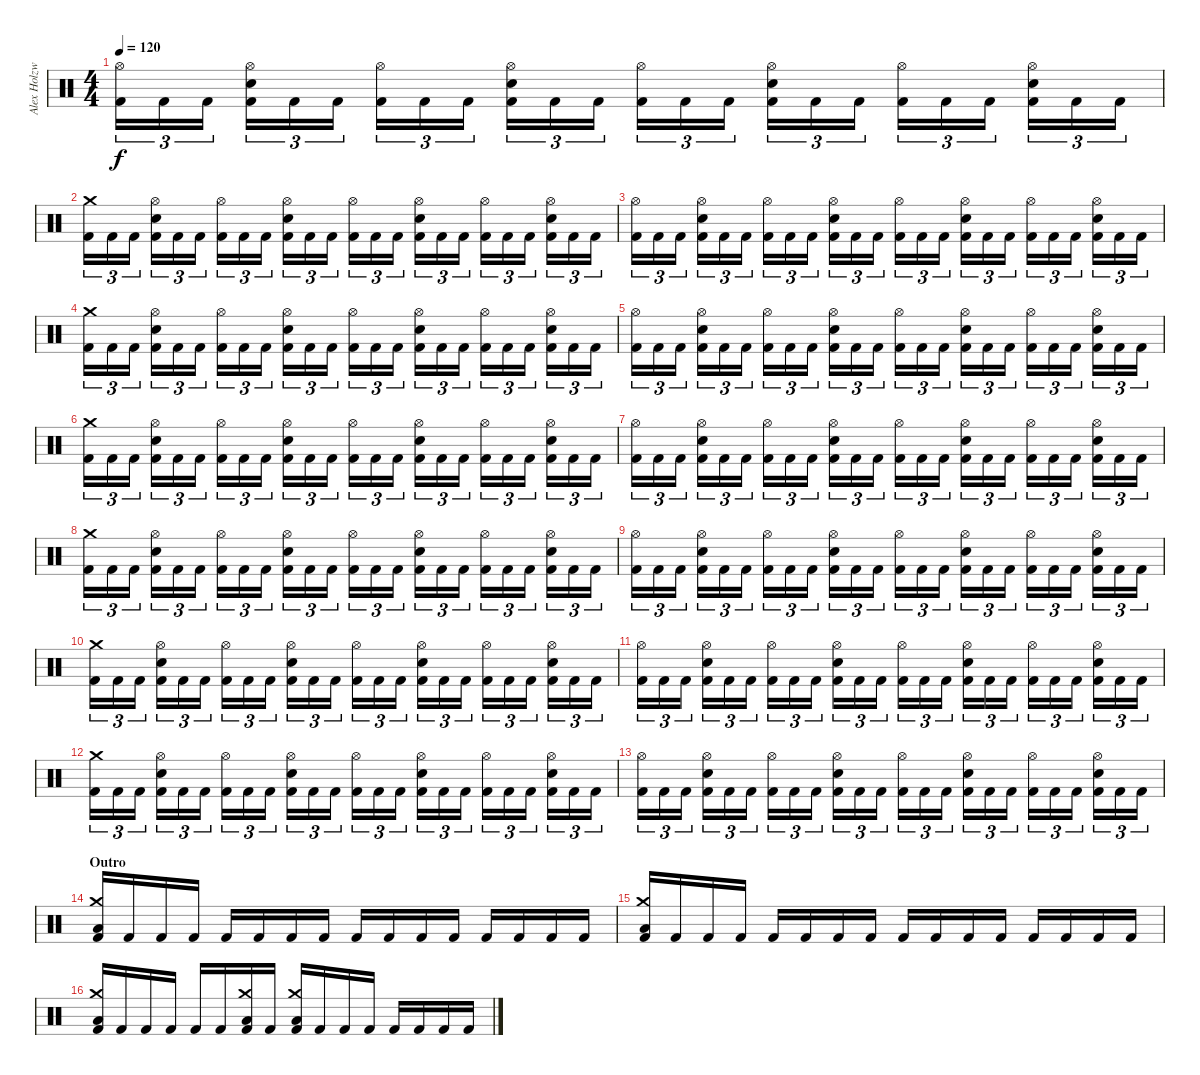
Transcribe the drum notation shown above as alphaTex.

\track ("Alex Holzwarth - Drums" "Alex Holzw") {instrument percussion}
\staff {score}
\articulation defaults
\ts (4 4)
\tempo 120
\clef neutral
\ks c
("Hi-Hat (open)" "Kick (hit) 2").16{tu (3 2) dy f} "Kick (hit) 2".16{tu (3 2)} "Kick (hit) 2".16{tu (3 2)} ("Hi-Hat (open)" "Electric Snare (hit)" "Kick (hit) 2").16{tu (3 2)} "Kick (hit) 2".16{tu (3 2)} "Kick (hit) 2".16{tu (3 2)} ("Hi-Hat (open)" "Kick (hit) 2").16{tu (3 2)} "Kick (hit) 2".16{tu (3 2)} "Kick (hit) 2".16{tu (3 2)} ("Hi-Hat (open)" "Electric Snare (hit)" "Kick (hit) 2").16{tu (3 2)} "Kick (hit) 2".16{tu (3 2)} "Kick (hit) 2".16{tu (3 2)} ("Hi-Hat (open)" "Kick (hit) 2").16{tu (3 2)} "Kick (hit) 2".16{tu (3 2)} "Kick (hit) 2".16{tu (3 2)} ("Hi-Hat (open)" "Electric Snare (hit)" "Kick (hit) 2").16{tu (3 2)} "Kick (hit) 2".16{tu (3 2)} "Kick (hit) 2".16{tu (3 2)} ("Hi-Hat (open)" "Kick (hit) 2").16{tu (3 2)} "Kick (hit) 2".16{tu (3 2)} "Kick (hit) 2".16{tu (3 2)} ("Hi-Hat (open)" "Electric Snare (hit)" "Kick (hit) 2").16{tu (3 2)} "Kick (hit) 2".16{tu (3 2)} "Kick (hit) 2".16{tu (3 2)} |
("Crash medium (hit)" "Kick (hit) 2").16{tu (3 2)} "Kick (hit) 2".16{tu (3 2)} "Kick (hit) 2".16{tu (3 2)} ("Hi-Hat (open)" "Electric Snare (hit)" "Kick (hit) 2").16{tu (3 2)} "Kick (hit) 2".16{tu (3 2)} "Kick (hit) 2".16{tu (3 2)} ("Hi-Hat (open)" "Kick (hit) 2").16{tu (3 2)} "Kick (hit) 2".16{tu (3 2)} "Kick (hit) 2".16{tu (3 2)} ("Hi-Hat (open)" "Electric Snare (hit)" "Kick (hit) 2").16{tu (3 2)} "Kick (hit) 2".16{tu (3 2)} "Kick (hit) 2".16{tu (3 2)} ("Hi-Hat (open)" "Kick (hit) 2").16{tu (3 2)} "Kick (hit) 2".16{tu (3 2)} "Kick (hit) 2".16{tu (3 2)} ("Hi-Hat (open)" "Electric Snare (hit)" "Kick (hit) 2").16{tu (3 2)} "Kick (hit) 2".16{tu (3 2)} "Kick (hit) 2".16{tu (3 2)} ("Hi-Hat (open)" "Kick (hit) 2").16{tu (3 2)} "Kick (hit) 2".16{tu (3 2)} "Kick (hit) 2".16{tu (3 2)} ("Hi-Hat (open)" "Electric Snare (hit)" "Kick (hit) 2").16{tu (3 2)} "Kick (hit) 2".16{tu (3 2)} "Kick (hit) 2".16{tu (3 2)} |
("Hi-Hat (open)" "Kick (hit) 2").16{tu (3 2)} "Kick (hit) 2".16{tu (3 2)} "Kick (hit) 2".16{tu (3 2)} ("Hi-Hat (open)" "Electric Snare (hit)" "Kick (hit) 2").16{tu (3 2)} "Kick (hit) 2".16{tu (3 2)} "Kick (hit) 2".16{tu (3 2)} ("Hi-Hat (open)" "Kick (hit) 2").16{tu (3 2)} "Kick (hit) 2".16{tu (3 2)} "Kick (hit) 2".16{tu (3 2)} ("Hi-Hat (open)" "Electric Snare (hit)" "Kick (hit) 2").16{tu (3 2)} "Kick (hit) 2".16{tu (3 2)} "Kick (hit) 2".16{tu (3 2)} ("Hi-Hat (open)" "Kick (hit) 2").16{tu (3 2)} "Kick (hit) 2".16{tu (3 2)} "Kick (hit) 2".16{tu (3 2)} ("Hi-Hat (open)" "Electric Snare (hit)" "Kick (hit) 2").16{tu (3 2)} "Kick (hit) 2".16{tu (3 2)} "Kick (hit) 2".16{tu (3 2)} ("Hi-Hat (open)" "Kick (hit) 2").16{tu (3 2)} "Kick (hit) 2".16{tu (3 2)} "Kick (hit) 2".16{tu (3 2)} ("Hi-Hat (open)" "Electric Snare (hit)" "Kick (hit) 2").16{tu (3 2)} "Kick (hit) 2".16{tu (3 2)} "Kick (hit) 2".16{tu (3 2)} |
("Crash medium (hit)" "Kick (hit) 2").16{tu (3 2)} "Kick (hit) 2".16{tu (3 2)} "Kick (hit) 2".16{tu (3 2)} ("Hi-Hat (open)" "Electric Snare (hit)" "Kick (hit) 2").16{tu (3 2)} "Kick (hit) 2".16{tu (3 2)} "Kick (hit) 2".16{tu (3 2)} ("Hi-Hat (open)" "Kick (hit) 2").16{tu (3 2)} "Kick (hit) 2".16{tu (3 2)} "Kick (hit) 2".16{tu (3 2)} ("Hi-Hat (open)" "Electric Snare (hit)" "Kick (hit) 2").16{tu (3 2)} "Kick (hit) 2".16{tu (3 2)} "Kick (hit) 2".16{tu (3 2)} ("Hi-Hat (open)" "Kick (hit) 2").16{tu (3 2)} "Kick (hit) 2".16{tu (3 2)} "Kick (hit) 2".16{tu (3 2)} ("Hi-Hat (open)" "Electric Snare (hit)" "Kick (hit) 2").16{tu (3 2)} "Kick (hit) 2".16{tu (3 2)} "Kick (hit) 2".16{tu (3 2)} ("Hi-Hat (open)" "Kick (hit) 2").16{tu (3 2)} "Kick (hit) 2".16{tu (3 2)} "Kick (hit) 2".16{tu (3 2)} ("Hi-Hat (open)" "Electric Snare (hit)" "Kick (hit) 2").16{tu (3 2)} "Kick (hit) 2".16{tu (3 2)} "Kick (hit) 2".16{tu (3 2)} |
("Hi-Hat (open)" "Kick (hit) 2").16{tu (3 2)} "Kick (hit) 2".16{tu (3 2)} "Kick (hit) 2".16{tu (3 2)} ("Hi-Hat (open)" "Electric Snare (hit)" "Kick (hit) 2").16{tu (3 2)} "Kick (hit) 2".16{tu (3 2)} "Kick (hit) 2".16{tu (3 2)} ("Hi-Hat (open)" "Kick (hit) 2").16{tu (3 2)} "Kick (hit) 2".16{tu (3 2)} "Kick (hit) 2".16{tu (3 2)} ("Hi-Hat (open)" "Electric Snare (hit)" "Kick (hit) 2").16{tu (3 2)} "Kick (hit) 2".16{tu (3 2)} "Kick (hit) 2".16{tu (3 2)} ("Hi-Hat (open)" "Kick (hit) 2").16{tu (3 2)} "Kick (hit) 2".16{tu (3 2)} "Kick (hit) 2".16{tu (3 2)} ("Hi-Hat (open)" "Electric Snare (hit)" "Kick (hit) 2").16{tu (3 2)} "Kick (hit) 2".16{tu (3 2)} "Kick (hit) 2".16{tu (3 2)} ("Hi-Hat (open)" "Kick (hit) 2").16{tu (3 2)} "Kick (hit) 2".16{tu (3 2)} "Kick (hit) 2".16{tu (3 2)} ("Hi-Hat (open)" "Electric Snare (hit)" "Kick (hit) 2").16{tu (3 2)} "Kick (hit) 2".16{tu (3 2)} "Kick (hit) 2".16{tu (3 2)} |
("Crash medium (hit)" "Kick (hit) 2").16{tu (3 2)} "Kick (hit) 2".16{tu (3 2)} "Kick (hit) 2".16{tu (3 2)} ("Hi-Hat (open)" "Electric Snare (hit)" "Kick (hit) 2").16{tu (3 2)} "Kick (hit) 2".16{tu (3 2)} "Kick (hit) 2".16{tu (3 2)} ("Hi-Hat (open)" "Kick (hit) 2").16{tu (3 2)} "Kick (hit) 2".16{tu (3 2)} "Kick (hit) 2".16{tu (3 2)} ("Hi-Hat (open)" "Electric Snare (hit)" "Kick (hit) 2").16{tu (3 2)} "Kick (hit) 2".16{tu (3 2)} "Kick (hit) 2".16{tu (3 2)} ("Hi-Hat (open)" "Kick (hit) 2").16{tu (3 2)} "Kick (hit) 2".16{tu (3 2)} "Kick (hit) 2".16{tu (3 2)} ("Hi-Hat (open)" "Electric Snare (hit)" "Kick (hit) 2").16{tu (3 2)} "Kick (hit) 2".16{tu (3 2)} "Kick (hit) 2".16{tu (3 2)} ("Hi-Hat (open)" "Kick (hit) 2").16{tu (3 2)} "Kick (hit) 2".16{tu (3 2)} "Kick (hit) 2".16{tu (3 2)} ("Hi-Hat (open)" "Electric Snare (hit)" "Kick (hit) 2").16{tu (3 2)} "Kick (hit) 2".16{tu (3 2)} "Kick (hit) 2".16{tu (3 2)} |
("Hi-Hat (open)" "Kick (hit) 2").16{tu (3 2)} "Kick (hit) 2".16{tu (3 2)} "Kick (hit) 2".16{tu (3 2)} ("Hi-Hat (open)" "Electric Snare (hit)" "Kick (hit) 2").16{tu (3 2)} "Kick (hit) 2".16{tu (3 2)} "Kick (hit) 2".16{tu (3 2)} ("Hi-Hat (open)" "Kick (hit) 2").16{tu (3 2)} "Kick (hit) 2".16{tu (3 2)} "Kick (hit) 2".16{tu (3 2)} ("Hi-Hat (open)" "Electric Snare (hit)" "Kick (hit) 2").16{tu (3 2)} "Kick (hit) 2".16{tu (3 2)} "Kick (hit) 2".16{tu (3 2)} ("Hi-Hat (open)" "Kick (hit) 2").16{tu (3 2)} "Kick (hit) 2".16{tu (3 2)} "Kick (hit) 2".16{tu (3 2)} ("Hi-Hat (open)" "Electric Snare (hit)" "Kick (hit) 2").16{tu (3 2)} "Kick (hit) 2".16{tu (3 2)} "Kick (hit) 2".16{tu (3 2)} ("Hi-Hat (open)" "Kick (hit) 2").16{tu (3 2)} "Kick (hit) 2".16{tu (3 2)} "Kick (hit) 2".16{tu (3 2)} ("Hi-Hat (open)" "Electric Snare (hit)" "Kick (hit) 2").16{tu (3 2)} "Kick (hit) 2".16{tu (3 2)} "Kick (hit) 2".16{tu (3 2)} |
("Crash medium (hit)" "Kick (hit) 2").16{tu (3 2)} "Kick (hit) 2".16{tu (3 2)} "Kick (hit) 2".16{tu (3 2)} ("Hi-Hat (open)" "Electric Snare (hit)" "Kick (hit) 2").16{tu (3 2)} "Kick (hit) 2".16{tu (3 2)} "Kick (hit) 2".16{tu (3 2)} ("Hi-Hat (open)" "Kick (hit) 2").16{tu (3 2)} "Kick (hit) 2".16{tu (3 2)} "Kick (hit) 2".16{tu (3 2)} ("Hi-Hat (open)" "Electric Snare (hit)" "Kick (hit) 2").16{tu (3 2)} "Kick (hit) 2".16{tu (3 2)} "Kick (hit) 2".16{tu (3 2)} ("Hi-Hat (open)" "Kick (hit) 2").16{tu (3 2)} "Kick (hit) 2".16{tu (3 2)} "Kick (hit) 2".16{tu (3 2)} ("Hi-Hat (open)" "Electric Snare (hit)" "Kick (hit) 2").16{tu (3 2)} "Kick (hit) 2".16{tu (3 2)} "Kick (hit) 2".16{tu (3 2)} ("Hi-Hat (open)" "Kick (hit) 2").16{tu (3 2)} "Kick (hit) 2".16{tu (3 2)} "Kick (hit) 2".16{tu (3 2)} ("Hi-Hat (open)" "Electric Snare (hit)" "Kick (hit) 2").16{tu (3 2)} "Kick (hit) 2".16{tu (3 2)} "Kick (hit) 2".16{tu (3 2)} |
("Hi-Hat (open)" "Kick (hit) 2").16{tu (3 2)} "Kick (hit) 2".16{tu (3 2)} "Kick (hit) 2".16{tu (3 2)} ("Hi-Hat (open)" "Electric Snare (hit)" "Kick (hit) 2").16{tu (3 2)} "Kick (hit) 2".16{tu (3 2)} "Kick (hit) 2".16{tu (3 2)} ("Hi-Hat (open)" "Kick (hit) 2").16{tu (3 2)} "Kick (hit) 2".16{tu (3 2)} "Kick (hit) 2".16{tu (3 2)} ("Hi-Hat (open)" "Electric Snare (hit)" "Kick (hit) 2").16{tu (3 2)} "Kick (hit) 2".16{tu (3 2)} "Kick (hit) 2".16{tu (3 2)} ("Hi-Hat (open)" "Kick (hit) 2").16{tu (3 2)} "Kick (hit) 2".16{tu (3 2)} "Kick (hit) 2".16{tu (3 2)} ("Hi-Hat (open)" "Electric Snare (hit)" "Kick (hit) 2").16{tu (3 2)} "Kick (hit) 2".16{tu (3 2)} "Kick (hit) 2".16{tu (3 2)} ("Hi-Hat (open)" "Kick (hit) 2").16{tu (3 2)} "Kick (hit) 2".16{tu (3 2)} "Kick (hit) 2".16{tu (3 2)} ("Hi-Hat (open)" "Electric Snare (hit)" "Kick (hit) 2").16{tu (3 2)} "Kick (hit) 2".16{tu (3 2)} "Kick (hit) 2".16{tu (3 2)} |
("Crash medium (hit)" "Kick (hit) 2").16{tu (3 2)} "Kick (hit) 2".16{tu (3 2)} "Kick (hit) 2".16{tu (3 2)} ("Hi-Hat (open)" "Electric Snare (hit)" "Kick (hit) 2").16{tu (3 2)} "Kick (hit) 2".16{tu (3 2)} "Kick (hit) 2".16{tu (3 2)} ("Hi-Hat (open)" "Kick (hit) 2").16{tu (3 2)} "Kick (hit) 2".16{tu (3 2)} "Kick (hit) 2".16{tu (3 2)} ("Hi-Hat (open)" "Electric Snare (hit)" "Kick (hit) 2").16{tu (3 2)} "Kick (hit) 2".16{tu (3 2)} "Kick (hit) 2".16{tu (3 2)} ("Hi-Hat (open)" "Kick (hit) 2").16{tu (3 2)} "Kick (hit) 2".16{tu (3 2)} "Kick (hit) 2".16{tu (3 2)} ("Hi-Hat (open)" "Electric Snare (hit)" "Kick (hit) 2").16{tu (3 2)} "Kick (hit) 2".16{tu (3 2)} "Kick (hit) 2".16{tu (3 2)} ("Hi-Hat (open)" "Kick (hit) 2").16{tu (3 2)} "Kick (hit) 2".16{tu (3 2)} "Kick (hit) 2".16{tu (3 2)} ("Hi-Hat (open)" "Electric Snare (hit)" "Kick (hit) 2").16{tu (3 2)} "Kick (hit) 2".16{tu (3 2)} "Kick (hit) 2".16{tu (3 2)} |
("Hi-Hat (open)" "Kick (hit) 2").16{tu (3 2)} "Kick (hit) 2".16{tu (3 2)} "Kick (hit) 2".16{tu (3 2)} ("Hi-Hat (open)" "Electric Snare (hit)" "Kick (hit) 2").16{tu (3 2)} "Kick (hit) 2".16{tu (3 2)} "Kick (hit) 2".16{tu (3 2)} ("Hi-Hat (open)" "Kick (hit) 2").16{tu (3 2)} "Kick (hit) 2".16{tu (3 2)} "Kick (hit) 2".16{tu (3 2)} ("Hi-Hat (open)" "Electric Snare (hit)" "Kick (hit) 2").16{tu (3 2)} "Kick (hit) 2".16{tu (3 2)} "Kick (hit) 2".16{tu (3 2)} ("Hi-Hat (open)" "Kick (hit) 2").16{tu (3 2)} "Kick (hit) 2".16{tu (3 2)} "Kick (hit) 2".16{tu (3 2)} ("Hi-Hat (open)" "Electric Snare (hit)" "Kick (hit) 2").16{tu (3 2)} "Kick (hit) 2".16{tu (3 2)} "Kick (hit) 2".16{tu (3 2)} ("Hi-Hat (open)" "Kick (hit) 2").16{tu (3 2)} "Kick (hit) 2".16{tu (3 2)} "Kick (hit) 2".16{tu (3 2)} ("Hi-Hat (open)" "Electric Snare (hit)" "Kick (hit) 2").16{tu (3 2)} "Kick (hit) 2".16{tu (3 2)} "Kick (hit) 2".16{tu (3 2)} |
("Crash medium (hit)" "Kick (hit) 2").16{tu (3 2)} "Kick (hit) 2".16{tu (3 2)} "Kick (hit) 2".16{tu (3 2)} ("Hi-Hat (open)" "Electric Snare (hit)" "Kick (hit) 2").16{tu (3 2)} "Kick (hit) 2".16{tu (3 2)} "Kick (hit) 2".16{tu (3 2)} ("Hi-Hat (open)" "Kick (hit) 2").16{tu (3 2)} "Kick (hit) 2".16{tu (3 2)} "Kick (hit) 2".16{tu (3 2)} ("Hi-Hat (open)" "Electric Snare (hit)" "Kick (hit) 2").16{tu (3 2)} "Kick (hit) 2".16{tu (3 2)} "Kick (hit) 2".16{tu (3 2)} ("Hi-Hat (open)" "Kick (hit) 2").16{tu (3 2)} "Kick (hit) 2".16{tu (3 2)} "Kick (hit) 2".16{tu (3 2)} ("Hi-Hat (open)" "Electric Snare (hit)" "Kick (hit) 2").16{tu (3 2)} "Kick (hit) 2".16{tu (3 2)} "Kick (hit) 2".16{tu (3 2)} ("Hi-Hat (open)" "Kick (hit) 2").16{tu (3 2)} "Kick (hit) 2".16{tu (3 2)} "Kick (hit) 2".16{tu (3 2)} ("Hi-Hat (open)" "Electric Snare (hit)" "Kick (hit) 2").16{tu (3 2)} "Kick (hit) 2".16{tu (3 2)} "Kick (hit) 2".16{tu (3 2)} |
("Hi-Hat (open)" "Kick (hit) 2").16{tu (3 2)} "Kick (hit) 2".16{tu (3 2)} "Kick (hit) 2".16{tu (3 2)} ("Hi-Hat (open)" "Electric Snare (hit)" "Kick (hit) 2").16{tu (3 2)} "Kick (hit) 2".16{tu (3 2)} "Kick (hit) 2".16{tu (3 2)} ("Hi-Hat (open)" "Kick (hit) 2").16{tu (3 2)} "Kick (hit) 2".16{tu (3 2)} "Kick (hit) 2".16{tu (3 2)} ("Hi-Hat (open)" "Electric Snare (hit)" "Kick (hit) 2").16{tu (3 2)} "Kick (hit) 2".16{tu (3 2)} "Kick (hit) 2".16{tu (3 2)} ("Hi-Hat (open)" "Kick (hit) 2").16{tu (3 2)} "Kick (hit) 2".16{tu (3 2)} "Kick (hit) 2".16{tu (3 2)} ("Hi-Hat (open)" "Electric Snare (hit)" "Kick (hit) 2").16{tu (3 2)} "Kick (hit) 2".16{tu (3 2)} "Kick (hit) 2".16{tu (3 2)} ("Hi-Hat (open)" "Kick (hit) 2").16{tu (3 2)} "Kick (hit) 2".16{tu (3 2)} "Kick (hit) 2".16{tu (3 2)} ("Hi-Hat (open)" "Electric Snare (hit)" "Kick (hit) 2").16{tu (3 2)} "Kick (hit) 2".16{tu (3 2)} "Kick (hit) 2".16{tu (3 2)} |
\section ("" "Outro")
("Crash medium (hit)" "Low Floor Tom (hit)" "Kick (hit) 2").16 "Kick (hit) 2".16 "Kick (hit) 2".16 "Kick (hit) 2".16 "Kick (hit) 2".16 "Kick (hit) 2".16 "Kick (hit) 2".16 "Kick (hit) 2".16 "Kick (hit) 2".16 "Kick (hit) 2".16 "Kick (hit) 2".16 "Kick (hit) 2".16 "Kick (hit) 2".16 "Kick (hit) 2".16 "Kick (hit) 2".16 "Kick (hit) 2".16 |
("Crash medium (hit)" "Low Floor Tom (hit)" "Kick (hit) 2").16 "Kick (hit) 2".16 "Kick (hit) 2".16 "Kick (hit) 2".16 "Kick (hit) 2".16 "Kick (hit) 2".16 "Kick (hit) 2".16 "Kick (hit) 2".16 "Kick (hit) 2".16 "Kick (hit) 2".16 "Kick (hit) 2".16 "Kick (hit) 2".16 "Kick (hit) 2".16 "Kick (hit) 2".16 "Kick (hit) 2".16 "Kick (hit) 2".16 |
("Crash medium (hit)" "Low Floor Tom (hit)" "Kick (hit) 2").16 "Kick (hit) 2".16 "Kick (hit) 2".16 "Kick (hit) 2".16 "Kick (hit) 2".16 "Kick (hit) 2".16 ("Crash medium (hit)" "Low Floor Tom (hit)" "Kick (hit) 2").16 "Kick (hit) 2".16 ("Crash medium (hit)" "Low Floor Tom (hit)" "Kick (hit) 2").16 "Kick (hit) 2".16 "Kick (hit) 2".16 "Kick (hit) 2".16 "Kick (hit) 2".16 "Kick (hit) 2".16 "Kick (hit) 2".16 "Kick (hit) 2".16
